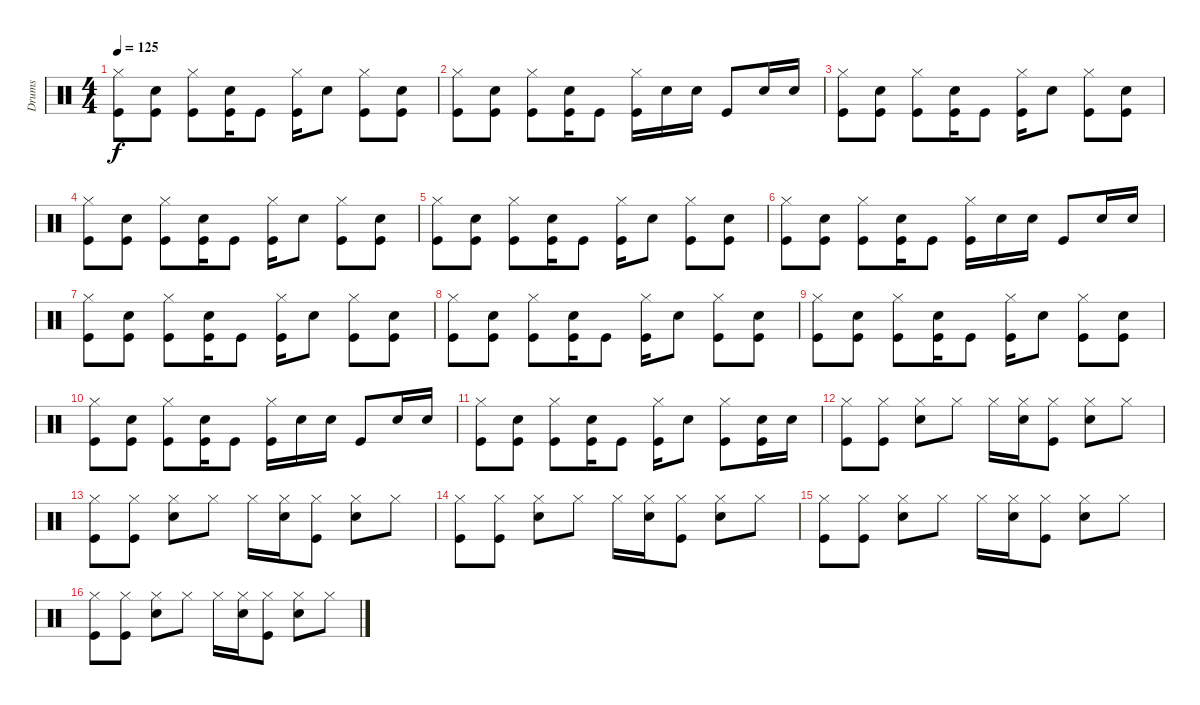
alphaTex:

\track ("Drums" "Drums") {instrument percussion}
\staff {score}
\articulation defaults
\ts (4 4)
\tempo 125
\clef neutral
\ks c
("Hi-Hat (closed)" "Kick (hit)").8{dy f} ("Snare (hit) 2" "Kick (hit)").8 ("Hi-Hat (closed)" "Kick (hit)").8 ("Snare (hit) 2" "Kick (hit)").16 "Kick (hit)".8 ("Hi-Hat (closed)" "Kick (hit)").16 "Snare (hit) 2".8 ("Hi-Hat (closed)" "Kick (hit)").8 ("Snare (hit) 2" "Kick (hit)").8 |
("Hi-Hat (closed)" "Kick (hit)").8 ("Snare (hit) 2" "Kick (hit)").8 ("Hi-Hat (closed)" "Kick (hit)").8 ("Snare (hit) 2" "Kick (hit)").16 "Kick (hit)".8 ("Hi-Hat (closed)" "Kick (hit)").16 "Snare (hit) 2".16 "Snare (hit) 2".16 "Kick (hit)".8 "Snare (hit) 2".16 "Snare (hit) 2".16 |
("Hi-Hat (closed)" "Kick (hit)").8 ("Snare (hit) 2" "Kick (hit)").8 ("Hi-Hat (closed)" "Kick (hit)").8 ("Snare (hit) 2" "Kick (hit)").16 "Kick (hit)".8 ("Hi-Hat (closed)" "Kick (hit)").16 "Snare (hit) 2".8 ("Hi-Hat (closed)" "Kick (hit)").8 ("Snare (hit) 2" "Kick (hit)").8 |
("Hi-Hat (closed)" "Kick (hit)").8 ("Snare (hit) 2" "Kick (hit)").8 ("Hi-Hat (closed)" "Kick (hit)").8 ("Snare (hit) 2" "Kick (hit)").16 "Kick (hit)".8 ("Hi-Hat (closed)" "Kick (hit)").16 "Snare (hit) 2".8 ("Hi-Hat (closed)" "Kick (hit)").8 ("Snare (hit) 2" "Kick (hit)").8 |
("Hi-Hat (closed)" "Kick (hit)").8 ("Snare (hit) 2" "Kick (hit)").8 ("Hi-Hat (closed)" "Kick (hit)").8 ("Snare (hit) 2" "Kick (hit)").16 "Kick (hit)".8 ("Hi-Hat (closed)" "Kick (hit)").16 "Snare (hit) 2".8 ("Hi-Hat (closed)" "Kick (hit)").8 ("Snare (hit) 2" "Kick (hit)").8 |
("Hi-Hat (closed)" "Kick (hit)").8 ("Snare (hit) 2" "Kick (hit)").8 ("Hi-Hat (closed)" "Kick (hit)").8 ("Snare (hit) 2" "Kick (hit)").16 "Kick (hit)".8 ("Hi-Hat (closed)" "Kick (hit)").16 "Snare (hit) 2".16 "Snare (hit) 2".16 "Kick (hit)".8 "Snare (hit) 2".16 "Snare (hit) 2".16 |
("Hi-Hat (closed)" "Kick (hit)").8 ("Snare (hit) 2" "Kick (hit)").8 ("Hi-Hat (closed)" "Kick (hit)").8 ("Snare (hit) 2" "Kick (hit)").16 "Kick (hit)".8 ("Hi-Hat (closed)" "Kick (hit)").16 "Snare (hit) 2".8 ("Hi-Hat (closed)" "Kick (hit)").8 ("Snare (hit) 2" "Kick (hit)").8 |
("Hi-Hat (closed)" "Kick (hit)").8 ("Snare (hit) 2" "Kick (hit)").8 ("Hi-Hat (closed)" "Kick (hit)").8 ("Snare (hit) 2" "Kick (hit)").16 "Kick (hit)".8 ("Hi-Hat (closed)" "Kick (hit)").16 "Snare (hit) 2".8 ("Hi-Hat (closed)" "Kick (hit)").8 ("Snare (hit) 2" "Kick (hit)").8 |
("Hi-Hat (closed)" "Kick (hit)").8 ("Snare (hit) 2" "Kick (hit)").8 ("Hi-Hat (closed)" "Kick (hit)").8 ("Snare (hit) 2" "Kick (hit)").16 "Kick (hit)".8 ("Hi-Hat (closed)" "Kick (hit)").16 "Snare (hit) 2".8 ("Hi-Hat (closed)" "Kick (hit)").8 ("Snare (hit) 2" "Kick (hit)").8 |
("Hi-Hat (closed)" "Kick (hit)").8 ("Snare (hit) 2" "Kick (hit)").8 ("Hi-Hat (closed)" "Kick (hit)").8 ("Snare (hit) 2" "Kick (hit)").16 "Kick (hit)".8 ("Hi-Hat (closed)" "Kick (hit)").16 "Snare (hit) 2".16 "Snare (hit) 2".16 "Kick (hit)".8 "Snare (hit) 2".16 "Snare (hit) 2".16 |
("Hi-Hat (closed)" "Kick (hit)").8 ("Snare (hit) 2" "Kick (hit)").8 ("Hi-Hat (closed)" "Kick (hit)").8 ("Snare (hit) 2" "Kick (hit)").16 "Kick (hit)".8 ("Hi-Hat (closed)" "Kick (hit)").16 "Snare (hit) 2".8 ("Hi-Hat (closed)" "Kick (hit)").8 ("Snare (hit) 2" "Kick (hit)").16 "Snare (hit) 2".16 |
("Hi-Hat (closed)" "Kick (hit)").8 ("Hi-Hat (closed)" "Kick (hit)").8 ("Hi-Hat (closed)" "Snare (hit) 2").8 "Hi-Hat (closed)".8 "Hi-Hat (closed)".16 ("Hi-Hat (closed)" "Snare (hit) 2").16 ("Hi-Hat (closed)" "Kick (hit)").8 ("Hi-Hat (closed)" "Snare (hit) 2").8 "Hi-Hat (closed)".8 |
("Hi-Hat (closed)" "Kick (hit)").8 ("Hi-Hat (closed)" "Kick (hit)").8 ("Hi-Hat (closed)" "Snare (hit) 2").8 "Hi-Hat (closed)".8 "Hi-Hat (closed)".16 ("Hi-Hat (closed)" "Snare (hit) 2").16 ("Hi-Hat (closed)" "Kick (hit)").8 ("Hi-Hat (closed)" "Snare (hit) 2").8 "Hi-Hat (closed)".8 |
("Hi-Hat (closed)" "Kick (hit)").8 ("Hi-Hat (closed)" "Kick (hit)").8 ("Hi-Hat (closed)" "Snare (hit) 2").8 "Hi-Hat (closed)".8 "Hi-Hat (closed)".16 ("Hi-Hat (closed)" "Snare (hit) 2").16 ("Hi-Hat (closed)" "Kick (hit)").8 ("Hi-Hat (closed)" "Snare (hit) 2").8 "Hi-Hat (closed)".8 |
("Hi-Hat (closed)" "Kick (hit)").8 ("Hi-Hat (closed)" "Kick (hit)").8 ("Hi-Hat (closed)" "Snare (hit) 2").8 "Hi-Hat (closed)".8 "Hi-Hat (closed)".16 ("Hi-Hat (closed)" "Snare (hit) 2").16 ("Hi-Hat (closed)" "Kick (hit)").8 ("Hi-Hat (closed)" "Snare (hit) 2").8 "Hi-Hat (closed)".8 |
("Hi-Hat (closed)" "Kick (hit)").8 ("Hi-Hat (closed)" "Kick (hit)").8 ("Hi-Hat (closed)" "Snare (hit) 2").8 "Hi-Hat (closed)".8 "Hi-Hat (closed)".16 ("Hi-Hat (closed)" "Snare (hit) 2").16 ("Hi-Hat (closed)" "Kick (hit)").8 ("Hi-Hat (closed)" "Snare (hit) 2").8 "Hi-Hat (closed)".8
